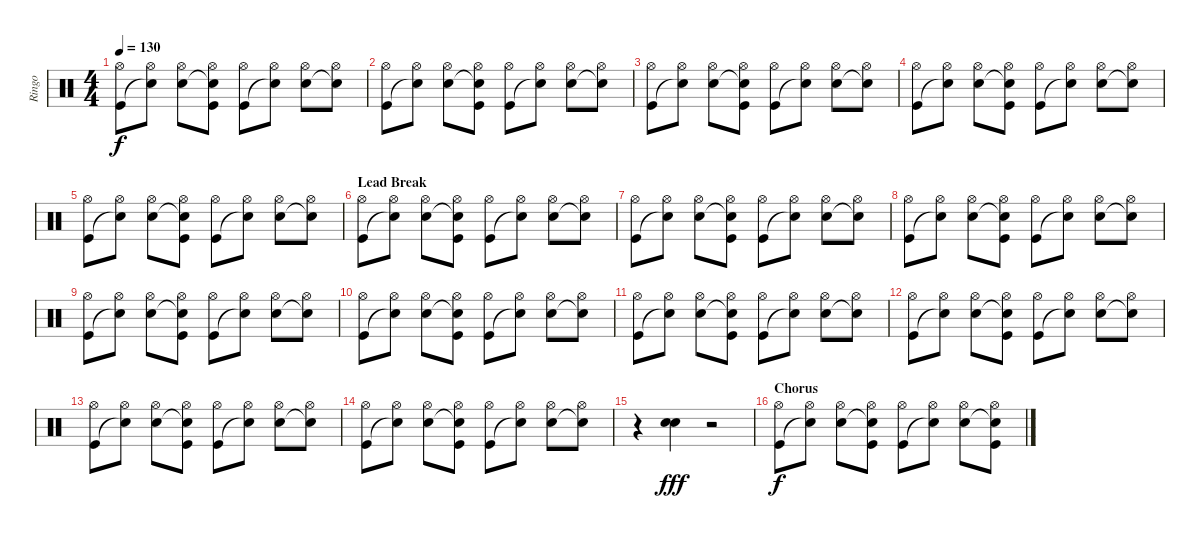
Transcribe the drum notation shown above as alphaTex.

\track ("Ringo" "Ringo") {instrument percussion}
\staff {score}
\articulation defaults
\ts (4 4)
\tempo 130
\clef neutral
\ks c
("Hi-Hat (open)" "Kick (hit)").8{dy f} ("Hi-Hat (open)" "Snare (hit)"{t}).8 ("Hi-Hat (open)" "Snare (hit) 2").8 ("Hi-Hat (open)" "Snare (hit)"{t} "Kick (hit)").8 ("Hi-Hat (open)" "Kick (hit)").8 ("Hi-Hat (open)" "Snare (hit)"{t}).8 ("Hi-Hat (open)" "Snare (hit) 2").8 ("Hi-Hat (open)" "Snare (hit)"{t}).8 |
("Hi-Hat (open)" "Kick (hit)").8 ("Hi-Hat (open)" "Snare (hit)"{t}).8 ("Hi-Hat (open)" "Snare (hit) 2").8 ("Hi-Hat (open)" "Snare (hit)"{t} "Kick (hit)").8 ("Hi-Hat (open)" "Kick (hit)").8 ("Hi-Hat (open)" "Snare (hit)"{t}).8 ("Hi-Hat (open)" "Snare (hit) 2").8 ("Hi-Hat (open)" "Snare (hit)"{t}).8 |
("Hi-Hat (open)" "Kick (hit)").8 ("Hi-Hat (open)" "Snare (hit)"{t}).8 ("Hi-Hat (open)" "Snare (hit) 2").8 ("Hi-Hat (open)" "Snare (hit)"{t} "Kick (hit)").8 ("Hi-Hat (open)" "Kick (hit)").8 ("Hi-Hat (open)" "Snare (hit)"{t}).8 ("Hi-Hat (open)" "Snare (hit) 2").8 ("Hi-Hat (open)" "Snare (hit)"{t}).8 |
("Hi-Hat (open)" "Kick (hit)").8 ("Hi-Hat (open)" "Snare (hit)"{t}).8 ("Hi-Hat (open)" "Snare (hit) 2").8 ("Hi-Hat (open)" "Snare (hit)"{t} "Kick (hit)").8 ("Hi-Hat (open)" "Kick (hit)").8 ("Hi-Hat (open)" "Snare (hit)"{t}).8 ("Hi-Hat (open)" "Snare (hit) 2").8 ("Hi-Hat (open)" "Snare (hit)"{t}).8 |
("Hi-Hat (open)" "Kick (hit)").8 ("Hi-Hat (open)" "Snare (hit)"{t}).8 ("Hi-Hat (open)" "Snare (hit) 2").8 ("Hi-Hat (open)" "Snare (hit)"{t} "Kick (hit)").8 ("Hi-Hat (open)" "Kick (hit)").8 ("Hi-Hat (open)" "Snare (hit)"{t}).8 ("Hi-Hat (open)" "Snare (hit) 2").8 ("Hi-Hat (open)" "Snare (hit)"{t}).8 |
\section ("" "Lead Break")
("Hi-Hat (open)" "Kick (hit)").8 ("Hi-Hat (open)" "Snare (hit)"{t}).8 ("Hi-Hat (open)" "Snare (hit) 2").8 ("Hi-Hat (open)" "Snare (hit)"{t} "Kick (hit)").8 ("Hi-Hat (open)" "Kick (hit)").8 ("Hi-Hat (open)" "Snare (hit)"{t}).8 ("Hi-Hat (open)" "Snare (hit) 2").8 ("Hi-Hat (open)" "Snare (hit)"{t}).8 |
("Hi-Hat (open)" "Kick (hit)").8 ("Hi-Hat (open)" "Snare (hit)"{t}).8 ("Hi-Hat (open)" "Snare (hit) 2").8 ("Hi-Hat (open)" "Snare (hit)"{t} "Kick (hit)").8 ("Hi-Hat (open)" "Kick (hit)").8 ("Hi-Hat (open)" "Snare (hit)"{t}).8 ("Hi-Hat (open)" "Snare (hit) 2").8 ("Hi-Hat (open)" "Snare (hit)"{t}).8 |
("Hi-Hat (open)" "Kick (hit)").8 ("Hi-Hat (open)" "Snare (hit)"{t}).8 ("Hi-Hat (open)" "Snare (hit) 2").8 ("Hi-Hat (open)" "Snare (hit)"{t} "Kick (hit)").8 ("Hi-Hat (open)" "Kick (hit)").8 ("Hi-Hat (open)" "Snare (hit)"{t}).8 ("Hi-Hat (open)" "Snare (hit) 2").8 ("Hi-Hat (open)" "Snare (hit)"{t}).8 |
("Hi-Hat (open)" "Kick (hit)").8 ("Hi-Hat (open)" "Snare (hit)"{t}).8 ("Hi-Hat (open)" "Snare (hit) 2").8 ("Hi-Hat (open)" "Snare (hit)"{t} "Kick (hit)").8 ("Hi-Hat (open)" "Kick (hit)").8 ("Hi-Hat (open)" "Snare (hit)"{t}).8 ("Hi-Hat (open)" "Snare (hit) 2").8 ("Hi-Hat (open)" "Snare (hit)"{t}).8 |
("Hi-Hat (open)" "Kick (hit)").8 ("Hi-Hat (open)" "Snare (hit)"{t}).8 ("Hi-Hat (open)" "Snare (hit) 2").8 ("Hi-Hat (open)" "Snare (hit)"{t} "Kick (hit)").8 ("Hi-Hat (open)" "Kick (hit)").8 ("Hi-Hat (open)" "Snare (hit)"{t}).8 ("Hi-Hat (open)" "Snare (hit) 2").8 ("Hi-Hat (open)" "Snare (hit)"{t}).8 |
("Hi-Hat (open)" "Kick (hit)").8 ("Hi-Hat (open)" "Snare (hit)"{t}).8 ("Hi-Hat (open)" "Snare (hit) 2").8 ("Hi-Hat (open)" "Snare (hit)"{t} "Kick (hit)").8 ("Hi-Hat (open)" "Kick (hit)").8 ("Hi-Hat (open)" "Snare (hit)"{t}).8 ("Hi-Hat (open)" "Snare (hit) 2").8 ("Hi-Hat (open)" "Snare (hit)"{t}).8 |
("Hi-Hat (open)" "Kick (hit)").8 ("Hi-Hat (open)" "Snare (hit)"{t}).8 ("Hi-Hat (open)" "Snare (hit) 2").8 ("Hi-Hat (open)" "Snare (hit)"{t} "Kick (hit)").8 ("Hi-Hat (open)" "Kick (hit)").8 ("Hi-Hat (open)" "Snare (hit)"{t}).8 ("Hi-Hat (open)" "Snare (hit) 2").8 ("Hi-Hat (open)" "Snare (hit)"{t}).8 |
("Hi-Hat (open)" "Kick (hit)").8 ("Hi-Hat (open)" "Snare (hit)"{t}).8 ("Hi-Hat (open)" "Snare (hit) 2").8 ("Hi-Hat (open)" "Snare (hit)"{t} "Kick (hit)").8 ("Hi-Hat (open)" "Kick (hit)").8 ("Hi-Hat (open)" "Snare (hit)"{t}).8 ("Hi-Hat (open)" "Snare (hit) 2").8 ("Hi-Hat (open)" "Snare (hit)"{t}).8 |
("Hi-Hat (open)" "Kick (hit)").8 ("Hi-Hat (open)" "Snare (hit)"{t}).8 ("Hi-Hat (open)" "Snare (hit) 2").8 ("Hi-Hat (open)" "Snare (hit)"{t} "Kick (hit)").8 ("Hi-Hat (open)" "Kick (hit)").8 ("Hi-Hat (open)" "Snare (hit)"{t}).8 ("Hi-Hat (open)" "Snare (hit) 2").8 ("Hi-Hat (open)" "Snare (hit)"{t}).8 |
r.4 ("Electric Snare (hit)" "Snare (hit) 2").4{dy fff} r.2 |
\section ("" "Chorus")
("Hi-Hat (open)" "Kick (hit)").8{dy f} ("Hi-Hat (open)" "Snare (hit)"{t}).8 ("Hi-Hat (open)" "Snare (hit) 2").8 ("Hi-Hat (open)" "Snare (hit)"{t} "Kick (hit)").8 ("Hi-Hat (open)" "Kick (hit)").8 ("Hi-Hat (open)" "Snare (hit)"{t}).8 ("Hi-Hat (open)" "Snare (hit) 2").8 ("Hi-Hat (open)" "Snare (hit)"{t} "Kick (hit)").8
